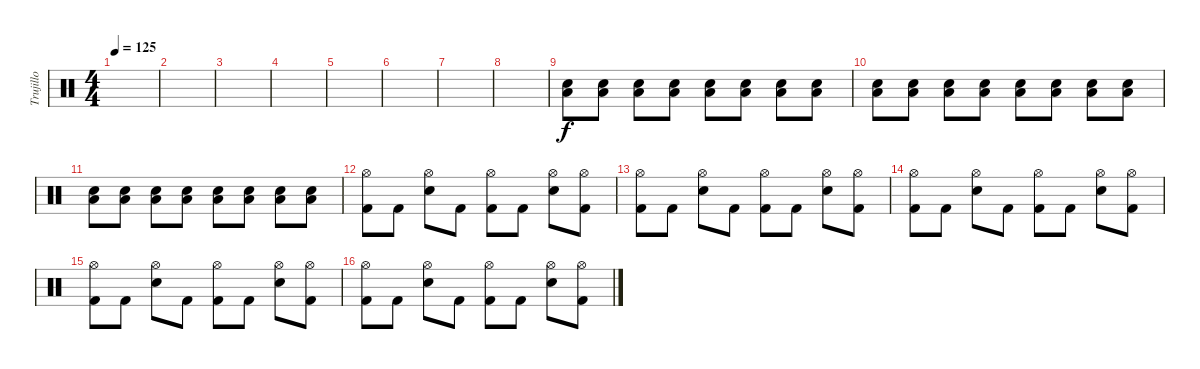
\track ("Trujillo" "Trujillo") {instrument percussion}
\staff {score}
\articulation defaults
\ts (4 4)
\tempo 125
\clef neutral
\ks c
|
|
|
|
|
|
|
|
("Low Tom (hit)" "Electric Snare (hit)").8{volume 16} ("Low Tom (hit)" "Electric Snare (hit)").8 ("Low Tom (hit)" "Electric Snare (hit)").8 ("Low Tom (hit)" "Electric Snare (hit)").8 ("Low Tom (hit)" "Electric Snare (hit)").8 ("Low Tom (hit)" "Electric Snare (hit)").8 ("Low Tom (hit)" "Electric Snare (hit)").8 ("Low Tom (hit)" "Electric Snare (hit)").8 |
("Low Tom (hit)" "Electric Snare (hit)").8 ("Low Tom (hit)" "Electric Snare (hit)").8 ("Low Tom (hit)" "Electric Snare (hit)").8 ("Low Tom (hit)" "Electric Snare (hit)").8 ("Low Tom (hit)" "Electric Snare (hit)").8 ("Low Tom (hit)" "Electric Snare (hit)").8 ("Low Tom (hit)" "Electric Snare (hit)").8 ("Low Tom (hit)" "Electric Snare (hit)").8 |
("Low Tom (hit)" "Electric Snare (hit)").8 ("Low Tom (hit)" "Electric Snare (hit)").8 ("Low Tom (hit)" "Electric Snare (hit)").8 ("Low Tom (hit)" "Electric Snare (hit)").8 ("Low Tom (hit)" "Electric Snare (hit)").8 ("Low Tom (hit)" "Electric Snare (hit)").8 ("Low Tom (hit)" "Electric Snare (hit)").8 ("Low Tom (hit)" "Electric Snare (hit)").8 |
("Hi-Hat (open)" "Kick (hit) 2").8 "Kick (hit) 2".8 ("Hi-Hat (open)" "Electric Snare (hit)").8 "Kick (hit) 2".8 ("Hi-Hat (open)" "Kick (hit) 2").8 "Kick (hit) 2".8 ("Hi-Hat (open)" "Electric Snare (hit)").8 ("Hi-Hat (open)" "Kick (hit) 2").8 |
("Hi-Hat (open)" "Kick (hit) 2").8 "Kick (hit) 2".8 ("Hi-Hat (open)" "Electric Snare (hit)").8 "Kick (hit) 2".8 ("Hi-Hat (open)" "Kick (hit) 2").8 "Kick (hit) 2".8 ("Hi-Hat (open)" "Electric Snare (hit)").8 ("Hi-Hat (open)" "Kick (hit) 2").8 |
("Hi-Hat (open)" "Kick (hit) 2").8 "Kick (hit) 2".8 ("Hi-Hat (open)" "Electric Snare (hit)").8 "Kick (hit) 2".8 ("Hi-Hat (open)" "Kick (hit) 2").8 "Kick (hit) 2".8 ("Hi-Hat (open)" "Electric Snare (hit)").8 ("Hi-Hat (open)" "Kick (hit) 2").8 |
("Hi-Hat (open)" "Kick (hit) 2").8 "Kick (hit) 2".8 ("Hi-Hat (open)" "Electric Snare (hit)").8 "Kick (hit) 2".8 ("Hi-Hat (open)" "Kick (hit) 2").8 "Kick (hit) 2".8 ("Hi-Hat (open)" "Electric Snare (hit)").8 ("Hi-Hat (open)" "Kick (hit) 2").8 |
("Hi-Hat (open)" "Kick (hit) 2").8 "Kick (hit) 2".8 ("Hi-Hat (open)" "Electric Snare (hit)").8 "Kick (hit) 2".8 ("Hi-Hat (open)" "Kick (hit) 2").8 "Kick (hit) 2".8 ("Hi-Hat (open)" "Electric Snare (hit)").8 ("Hi-Hat (open)" "Kick (hit) 2").8
